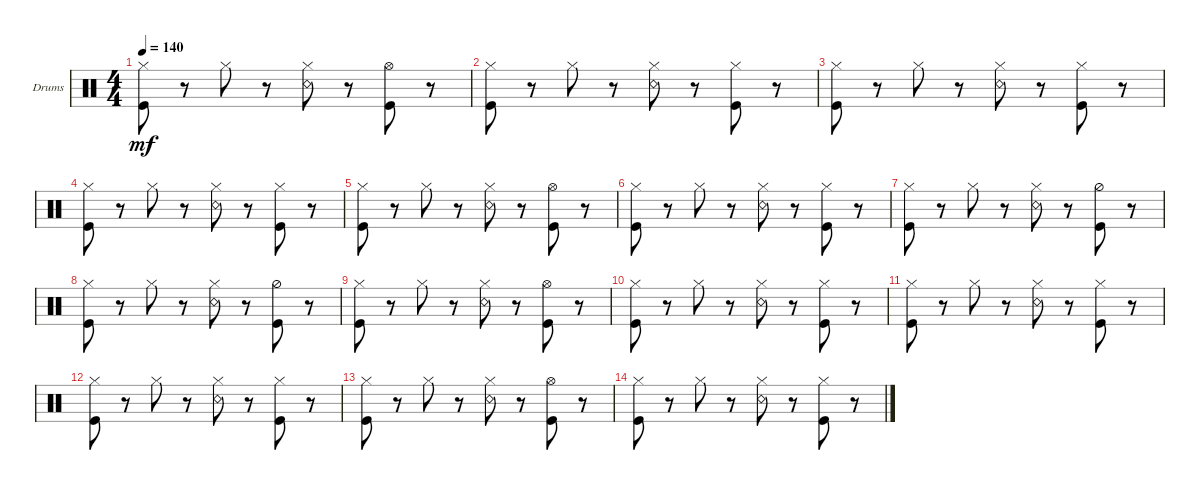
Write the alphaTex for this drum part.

\defaultSystemsLayout 4
\bracketExtendMode groupsimilarinstruments
\firstSystemTrackNameOrientation horizontal
\otherSystemsTrackNameOrientation horizontal
\track ("Drumkit" "Drums") {instrument percussion}
\staff {score}
\articulation defaults
\ts (4 4)
\tempo 140
\clef neutral
\ks c
("Hi-Hat (closed)" "Kick (hit)").8{dy mf} r.8 "Hi-Hat (closed)".8 r.8 ("Hi-Hat (closed)" "Snare (rim shot)").8 r.8 ("Hi-Hat (open)" "Kick (hit)").8 r.8 |
("Kick (hit)" "Hi-Hat (closed)").8 r.8 "Hi-Hat (closed)".8 r.8 ("Hi-Hat (closed)" "Snare (rim shot)").8 r.8 ("Hi-Hat (closed)" "Kick (hit)").8 r.8 |
("Hi-Hat (closed)" "Kick (hit)").8 r.8 "Hi-Hat (closed)".8 r.8 ("Hi-Hat (closed)" "Snare (rim shot)").8 r.8 ("Hi-Hat (closed)" "Kick (hit)").8 r.8 |
("Kick (hit)" "Hi-Hat (closed)").8 r.8 "Hi-Hat (closed)".8 r.8 ("Hi-Hat (closed)" "Snare (rim shot)").8 r.8 ("Hi-Hat (closed)" "Kick (hit)").8 r.8 |
("Hi-Hat (closed)" "Kick (hit)").8 r.8 "Hi-Hat (closed)".8 r.8 ("Hi-Hat (closed)" "Snare (rim shot)").8 r.8 ("Hi-Hat (open)" "Kick (hit)").8 r.8 |
("Kick (hit)" "Hi-Hat (closed)").8 r.8 "Hi-Hat (closed)".8 r.8 ("Hi-Hat (closed)" "Snare (rim shot)").8 r.8 ("Hi-Hat (closed)" "Kick (hit)").8 r.8 |
("Hi-Hat (closed)" "Kick (hit)").8 r.8 "Hi-Hat (closed)".8 r.8 ("Hi-Hat (closed)" "Snare (rim shot)").8 r.8 ("Hi-Hat (half)" "Kick (hit)").8 r.8 |
("Hi-Hat (closed)" "Kick (hit)").8 r.8 "Hi-Hat (closed)".8 r.8 ("Hi-Hat (closed)" "Snare (rim shot)").8 r.8 ("Hi-Hat (half)" "Kick (hit)").8 r.8 |
("Hi-Hat (closed)" "Kick (hit)").8 r.8 "Hi-Hat (closed)".8 r.8 ("Hi-Hat (closed)" "Snare (rim shot)").8 r.8 ("Hi-Hat (open)" "Kick (hit)").8 r.8 |
("Kick (hit)" "Hi-Hat (closed)").8 r.8 "Hi-Hat (closed)".8 r.8 ("Hi-Hat (closed)" "Snare (rim shot)").8 r.8 ("Hi-Hat (closed)" "Kick (hit)").8 r.8 |
("Hi-Hat (closed)" "Kick (hit)").8 r.8 "Hi-Hat (closed)".8 r.8 ("Hi-Hat (closed)" "Snare (rim shot)").8 r.8 ("Hi-Hat (closed)" "Kick (hit)").8 r.8 |
("Kick (hit)" "Hi-Hat (closed)").8 r.8 "Hi-Hat (closed)".8 r.8 ("Hi-Hat (closed)" "Snare (rim shot)").8 r.8 ("Hi-Hat (closed)" "Kick (hit)").8 r.8 |
("Hi-Hat (closed)" "Kick (hit)").8 r.8 "Hi-Hat (closed)".8 r.8 ("Hi-Hat (closed)" "Snare (rim shot)").8 r.8 ("Hi-Hat (open)" "Kick (hit)").8 r.8 |
("Kick (hit)" "Hi-Hat (closed)").8 r.8 "Hi-Hat (closed)".8 r.8 ("Hi-Hat (closed)" "Snare (rim shot)").8 r.8 ("Hi-Hat (closed)" "Kick (hit)").8 r.8
